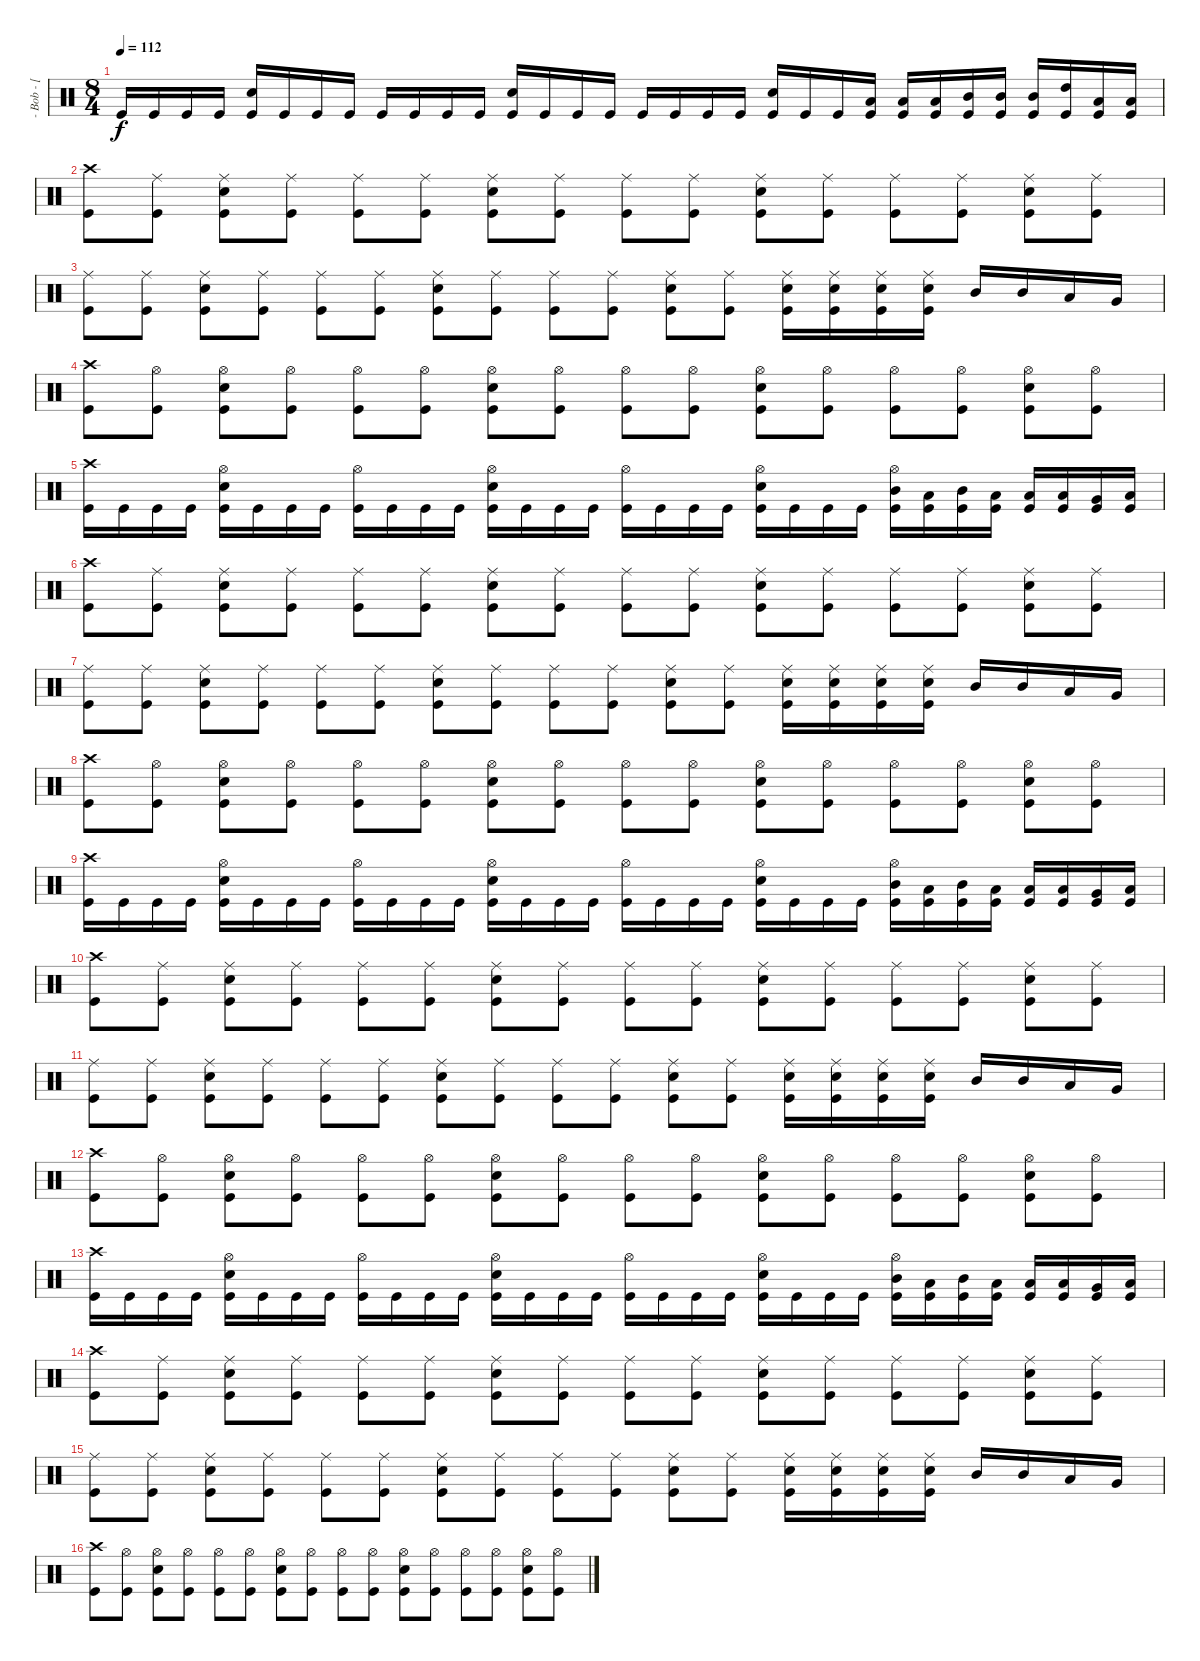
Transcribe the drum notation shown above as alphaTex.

\track ("- Bob - [ Drum ]" "- Bob - [ ") {instrument percussion}
\staff {score}
\articulation defaults
\ts (8 4)
\tempo 112
\clef neutral
\ks c "Kick (hit)".16{dy f} "Kick (hit)".16 "Kick (hit)".16 "Kick (hit)".16
("Kick (hit)" "Snare (hit) 2").16 "Kick (hit)".16 "Kick (hit)".16 "Kick (hit)".16 "Kick (hit)".16 "Kick (hit)".16 "Kick (hit)".16 "Kick (hit)".16 ("Kick (hit)" "Snare (hit) 2").16 "Kick (hit)".16 "Kick (hit)".16 "Kick (hit)".16 "Kick (hit)".16 "Kick (hit)".16 "Kick (hit)".16 "Kick (hit)".16 ("Kick (hit)" "Snare (hit) 2").16 "Kick (hit)".16 "Kick (hit)".16 ("Kick (hit)" "Low Tom (hit)").16 ("Kick (hit)" "Low Tom (hit)").16 ("Kick (hit)" "Low Tom (hit)").16 ("Kick (hit)" "Mid Tom (hit)").16 ("Kick (hit)" "Mid Tom (hit)").16 ("Kick (hit)" "Mid Tom (hit)").16 ("Kick (hit)" "High Tom (hit)").16 ("Kick (hit)" "Low Floor Tom (hit)").16 ("Kick (hit)" "Low Floor Tom (hit)").16 |
("Kick (hit)" "Crash high (hit)").8 ("Kick (hit)" "Ride (middle)").8 ("Kick (hit)" "Snare (hit) 2" "Ride (middle)").8 ("Kick (hit)" "Ride (middle)").8 ("Kick (hit)" "Ride (middle)").8 ("Kick (hit)" "Ride (middle)").8 ("Kick (hit)" "Snare (hit) 2" "Ride (middle)").8 ("Kick (hit)" "Ride (middle)").8 ("Kick (hit)" "Ride (middle)").8 ("Kick (hit)" "Ride (middle)").8 ("Kick (hit)" "Snare (hit) 2" "Ride (middle)").8 ("Kick (hit)" "Ride (middle)").8 ("Kick (hit)" "Ride (middle)").8 ("Kick (hit)" "Ride (middle)").8 ("Kick (hit)" "Snare (hit) 2" "Ride (middle)").8 ("Kick (hit)" "Ride (middle)").8 |
("Kick (hit)" "Ride (middle)").8 ("Kick (hit)" "Ride (middle)").8 ("Kick (hit)" "Snare (hit) 2" "Ride (middle)").8 ("Kick (hit)" "Ride (middle)").8 ("Kick (hit)" "Ride (middle)").8 ("Kick (hit)" "Ride (middle)").8 ("Kick (hit)" "Snare (hit) 2" "Ride (middle)").8 ("Kick (hit)" "Ride (middle)").8 ("Kick (hit)" "Ride (middle)").8 ("Kick (hit)" "Ride (middle)").8 ("Kick (hit)" "Snare (hit) 2" "Ride (middle)").8 ("Kick (hit)" "Ride (middle)").8 ("Kick (hit)" "Snare (hit) 2" "Ride (middle)").16 ("Kick (hit)" "Snare (hit) 2" "Ride (middle)").16 ("Kick (hit)" "Snare (hit) 2" "Ride (middle)").16 ("Kick (hit)" "Snare (hit) 2" "Ride (middle)").16 "Mid Tom (hit)".16 "Mid Tom (hit)".16 "Low Tom (hit)".16 "Very Low Tom (hit)".16 |
("Kick (hit)" "Crash high (hit)").8 ("Kick (hit)" "Hi-Hat (open)").8 ("Kick (hit)" "Snare (hit) 2" "Hi-Hat (open)").8 ("Kick (hit)" "Hi-Hat (open)").8 ("Kick (hit)" "Hi-Hat (open)").8 ("Kick (hit)" "Hi-Hat (open)").8 ("Kick (hit)" "Snare (hit) 2" "Hi-Hat (open)").8 ("Kick (hit)" "Hi-Hat (open)").8 ("Kick (hit)" "Hi-Hat (open)").8 ("Kick (hit)" "Hi-Hat (open)").8 ("Kick (hit)" "Snare (hit) 2" "Hi-Hat (open)").8 ("Kick (hit)" "Hi-Hat (open)").8 ("Kick (hit)" "Hi-Hat (open)").8 ("Kick (hit)" "Hi-Hat (open)").8 ("Kick (hit)" "Snare (hit) 2" "Hi-Hat (open)").8 ("Kick (hit)" "Hi-Hat (open)").8 |
("Kick (hit)" "Crash high (hit)").16 "Kick (hit)".16 "Kick (hit)".16 "Kick (hit)".16 ("Kick (hit)" "Snare (hit) 2" "Hi-Hat (open)").16 "Kick (hit)".16 "Kick (hit)".16 "Kick (hit)".16 ("Kick (hit)" "Hi-Hat (open)").16 "Kick (hit)".16 "Kick (hit)".16 "Kick (hit)".16 ("Kick (hit)" "Snare (hit) 2" "Hi-Hat (open)").16 "Kick (hit)".16 "Kick (hit)".16 "Kick (hit)".16 ("Kick (hit)" "Hi-Hat (open)").16 "Kick (hit)".16 "Kick (hit)".16 "Kick (hit)".16 ("Kick (hit)" "Snare (hit) 2" "Hi-Hat (open)").16 "Kick (hit)".16 "Kick (hit)".16 "Kick (hit)".16 ("Kick (hit)" "Mid Tom (hit)" "Hi-Hat (open)").16 ("Kick (hit)" "Low Tom (hit)").16 ("Kick (hit)" "Mid Tom (hit)").16 ("Kick (hit)" "Low Tom (hit)").16 ("Kick (hit)" "Low Tom (hit)").16 ("Kick (hit)" "Low Tom (hit)").16 ("Kick (hit)" "Very Low Tom (hit)").16 ("Kick (hit)" "Low Floor Tom (hit)").16 |
("Kick (hit)" "Crash high (hit)").8 ("Kick (hit)" "Ride (middle)").8 ("Kick (hit)" "Snare (hit) 2" "Ride (middle)").8 ("Kick (hit)" "Ride (middle)").8 ("Kick (hit)" "Ride (middle)").8 ("Kick (hit)" "Ride (middle)").8 ("Kick (hit)" "Snare (hit) 2" "Ride (middle)").8 ("Kick (hit)" "Ride (middle)").8 ("Kick (hit)" "Ride (middle)").8 ("Kick (hit)" "Ride (middle)").8 ("Kick (hit)" "Snare (hit) 2" "Ride (middle)").8 ("Kick (hit)" "Ride (middle)").8 ("Kick (hit)" "Ride (middle)").8 ("Kick (hit)" "Ride (middle)").8 ("Kick (hit)" "Snare (hit) 2" "Ride (middle)").8 ("Kick (hit)" "Ride (middle)").8 |
("Kick (hit)" "Ride (middle)").8 ("Kick (hit)" "Ride (middle)").8 ("Kick (hit)" "Snare (hit) 2" "Ride (middle)").8 ("Kick (hit)" "Ride (middle)").8 ("Kick (hit)" "Ride (middle)").8 ("Kick (hit)" "Ride (middle)").8 ("Kick (hit)" "Snare (hit) 2" "Ride (middle)").8 ("Kick (hit)" "Ride (middle)").8 ("Kick (hit)" "Ride (middle)").8 ("Kick (hit)" "Ride (middle)").8 ("Kick (hit)" "Snare (hit) 2" "Ride (middle)").8 ("Kick (hit)" "Ride (middle)").8 ("Kick (hit)" "Snare (hit) 2" "Ride (middle)").16 ("Kick (hit)" "Snare (hit) 2" "Ride (middle)").16 ("Kick (hit)" "Snare (hit) 2" "Ride (middle)").16 ("Kick (hit)" "Snare (hit) 2" "Ride (middle)").16 "Mid Tom (hit)".16 "Mid Tom (hit)".16 "Low Tom (hit)".16 "Very Low Tom (hit)".16 |
("Kick (hit)" "Crash high (hit)").8 ("Kick (hit)" "Hi-Hat (open)").8 ("Kick (hit)" "Snare (hit) 2" "Hi-Hat (open)").8 ("Kick (hit)" "Hi-Hat (open)").8 ("Kick (hit)" "Hi-Hat (open)").8 ("Kick (hit)" "Hi-Hat (open)").8 ("Kick (hit)" "Snare (hit) 2" "Hi-Hat (open)").8 ("Kick (hit)" "Hi-Hat (open)").8 ("Kick (hit)" "Hi-Hat (open)").8 ("Kick (hit)" "Hi-Hat (open)").8 ("Kick (hit)" "Snare (hit) 2" "Hi-Hat (open)").8 ("Kick (hit)" "Hi-Hat (open)").8 ("Kick (hit)" "Hi-Hat (open)").8 ("Kick (hit)" "Hi-Hat (open)").8 ("Kick (hit)" "Snare (hit) 2" "Hi-Hat (open)").8 ("Kick (hit)" "Hi-Hat (open)").8 |
("Kick (hit)" "Crash high (hit)").16 "Kick (hit)".16 "Kick (hit)".16 "Kick (hit)".16 ("Kick (hit)" "Snare (hit) 2" "Hi-Hat (open)").16 "Kick (hit)".16 "Kick (hit)".16 "Kick (hit)".16 ("Kick (hit)" "Hi-Hat (open)").16 "Kick (hit)".16 "Kick (hit)".16 "Kick (hit)".16 ("Kick (hit)" "Snare (hit) 2" "Hi-Hat (open)").16 "Kick (hit)".16 "Kick (hit)".16 "Kick (hit)".16 ("Kick (hit)" "Hi-Hat (open)").16 "Kick (hit)".16 "Kick (hit)".16 "Kick (hit)".16 ("Kick (hit)" "Snare (hit) 2" "Hi-Hat (open)").16 "Kick (hit)".16 "Kick (hit)".16 "Kick (hit)".16 ("Kick (hit)" "Mid Tom (hit)" "Hi-Hat (open)").16 ("Kick (hit)" "Low Tom (hit)").16 ("Kick (hit)" "Mid Tom (hit)").16 ("Kick (hit)" "Low Tom (hit)").16 ("Kick (hit)" "Low Tom (hit)").16 ("Kick (hit)" "Low Tom (hit)").16 ("Kick (hit)" "Very Low Tom (hit)").16 ("Kick (hit)" "Low Floor Tom (hit)").16 |
("Kick (hit)" "Crash high (hit)").8 ("Kick (hit)" "Ride (middle)").8 ("Kick (hit)" "Snare (hit) 2" "Ride (middle)").8 ("Kick (hit)" "Ride (middle)").8 ("Kick (hit)" "Ride (middle)").8 ("Kick (hit)" "Ride (middle)").8 ("Kick (hit)" "Snare (hit) 2" "Ride (middle)").8 ("Kick (hit)" "Ride (middle)").8 ("Kick (hit)" "Ride (middle)").8 ("Kick (hit)" "Ride (middle)").8 ("Kick (hit)" "Snare (hit) 2" "Ride (middle)").8 ("Kick (hit)" "Ride (middle)").8 ("Kick (hit)" "Ride (middle)").8 ("Kick (hit)" "Ride (middle)").8 ("Kick (hit)" "Snare (hit) 2" "Ride (middle)").8 ("Kick (hit)" "Ride (middle)").8 |
("Kick (hit)" "Ride (middle)").8 ("Kick (hit)" "Ride (middle)").8 ("Kick (hit)" "Snare (hit) 2" "Ride (middle)").8 ("Kick (hit)" "Ride (middle)").8 ("Kick (hit)" "Ride (middle)").8 ("Kick (hit)" "Ride (middle)").8 ("Kick (hit)" "Snare (hit) 2" "Ride (middle)").8 ("Kick (hit)" "Ride (middle)").8 ("Kick (hit)" "Ride (middle)").8 ("Kick (hit)" "Ride (middle)").8 ("Kick (hit)" "Snare (hit) 2" "Ride (middle)").8 ("Kick (hit)" "Ride (middle)").8 ("Kick (hit)" "Snare (hit) 2" "Ride (middle)").16 ("Kick (hit)" "Snare (hit) 2" "Ride (middle)").16 ("Kick (hit)" "Snare (hit) 2" "Ride (middle)").16 ("Kick (hit)" "Snare (hit) 2" "Ride (middle)").16 "Mid Tom (hit)".16 "Mid Tom (hit)".16 "Low Tom (hit)".16 "Very Low Tom (hit)".16 |
("Kick (hit)" "Crash high (hit)").8 ("Kick (hit)" "Hi-Hat (open)").8 ("Kick (hit)" "Snare (hit) 2" "Hi-Hat (open)").8 ("Kick (hit)" "Hi-Hat (open)").8 ("Kick (hit)" "Hi-Hat (open)").8 ("Kick (hit)" "Hi-Hat (open)").8 ("Kick (hit)" "Snare (hit) 2" "Hi-Hat (open)").8 ("Kick (hit)" "Hi-Hat (open)").8 ("Kick (hit)" "Hi-Hat (open)").8 ("Kick (hit)" "Hi-Hat (open)").8 ("Kick (hit)" "Snare (hit) 2" "Hi-Hat (open)").8 ("Kick (hit)" "Hi-Hat (open)").8 ("Kick (hit)" "Hi-Hat (open)").8 ("Kick (hit)" "Hi-Hat (open)").8 ("Kick (hit)" "Snare (hit) 2" "Hi-Hat (open)").8 ("Kick (hit)" "Hi-Hat (open)").8 |
("Kick (hit)" "Crash high (hit)").16 "Kick (hit)".16 "Kick (hit)".16 "Kick (hit)".16 ("Kick (hit)" "Snare (hit) 2" "Hi-Hat (open)").16 "Kick (hit)".16 "Kick (hit)".16 "Kick (hit)".16 ("Kick (hit)" "Hi-Hat (open)").16 "Kick (hit)".16 "Kick (hit)".16 "Kick (hit)".16 ("Kick (hit)" "Snare (hit) 2" "Hi-Hat (open)").16 "Kick (hit)".16 "Kick (hit)".16 "Kick (hit)".16 ("Kick (hit)" "Hi-Hat (open)").16 "Kick (hit)".16 "Kick (hit)".16 "Kick (hit)".16 ("Kick (hit)" "Snare (hit) 2" "Hi-Hat (open)").16 "Kick (hit)".16 "Kick (hit)".16 "Kick (hit)".16 ("Kick (hit)" "Mid Tom (hit)" "Hi-Hat (open)").16 ("Kick (hit)" "Low Tom (hit)").16 ("Kick (hit)" "Mid Tom (hit)").16 ("Kick (hit)" "Low Tom (hit)").16 ("Kick (hit)" "Low Tom (hit)").16 ("Kick (hit)" "Low Tom (hit)").16 ("Kick (hit)" "Very Low Tom (hit)").16 ("Kick (hit)" "Low Floor Tom (hit)").16 |
("Kick (hit)" "Crash high (hit)").8 ("Kick (hit)" "Ride (middle)").8 ("Kick (hit)" "Snare (hit) 2" "Ride (middle)").8 ("Kick (hit)" "Ride (middle)").8 ("Kick (hit)" "Ride (middle)").8 ("Kick (hit)" "Ride (middle)").8 ("Kick (hit)" "Snare (hit) 2" "Ride (middle)").8 ("Kick (hit)" "Ride (middle)").8 ("Kick (hit)" "Ride (middle)").8 ("Kick (hit)" "Ride (middle)").8 ("Kick (hit)" "Snare (hit) 2" "Ride (middle)").8 ("Kick (hit)" "Ride (middle)").8 ("Kick (hit)" "Ride (middle)").8 ("Kick (hit)" "Ride (middle)").8 ("Kick (hit)" "Snare (hit) 2" "Ride (middle)").8 ("Kick (hit)" "Ride (middle)").8 |
("Kick (hit)" "Ride (middle)").8 ("Kick (hit)" "Ride (middle)").8 ("Kick (hit)" "Snare (hit) 2" "Ride (middle)").8 ("Kick (hit)" "Ride (middle)").8 ("Kick (hit)" "Ride (middle)").8 ("Kick (hit)" "Ride (middle)").8 ("Kick (hit)" "Snare (hit) 2" "Ride (middle)").8 ("Kick (hit)" "Ride (middle)").8 ("Kick (hit)" "Ride (middle)").8 ("Kick (hit)" "Ride (middle)").8 ("Kick (hit)" "Snare (hit) 2" "Ride (middle)").8 ("Kick (hit)" "Ride (middle)").8 ("Kick (hit)" "Snare (hit) 2" "Ride (middle)").16 ("Kick (hit)" "Snare (hit) 2" "Ride (middle)").16 ("Kick (hit)" "Snare (hit) 2" "Ride (middle)").16 ("Kick (hit)" "Snare (hit) 2" "Ride (middle)").16 "Mid Tom (hit)".16 "Mid Tom (hit)".16 "Low Tom (hit)".16 "Very Low Tom (hit)".16 |
("Kick (hit)" "Crash high (hit)").8 ("Kick (hit)" "Hi-Hat (open)").8 ("Kick (hit)" "Snare (hit) 2" "Hi-Hat (open)").8 ("Kick (hit)" "Hi-Hat (open)").8 ("Kick (hit)" "Hi-Hat (open)").8 ("Kick (hit)" "Hi-Hat (open)").8 ("Kick (hit)" "Snare (hit) 2" "Hi-Hat (open)").8 ("Kick (hit)" "Hi-Hat (open)").8 ("Kick (hit)" "Hi-Hat (open)").8 ("Kick (hit)" "Hi-Hat (open)").8 ("Kick (hit)" "Snare (hit) 2" "Hi-Hat (open)").8 ("Kick (hit)" "Hi-Hat (open)").8 ("Kick (hit)" "Hi-Hat (open)").8 ("Kick (hit)" "Hi-Hat (open)").8 ("Kick (hit)" "Snare (hit) 2" "Hi-Hat (open)").8 ("Kick (hit)" "Hi-Hat (open)").8
